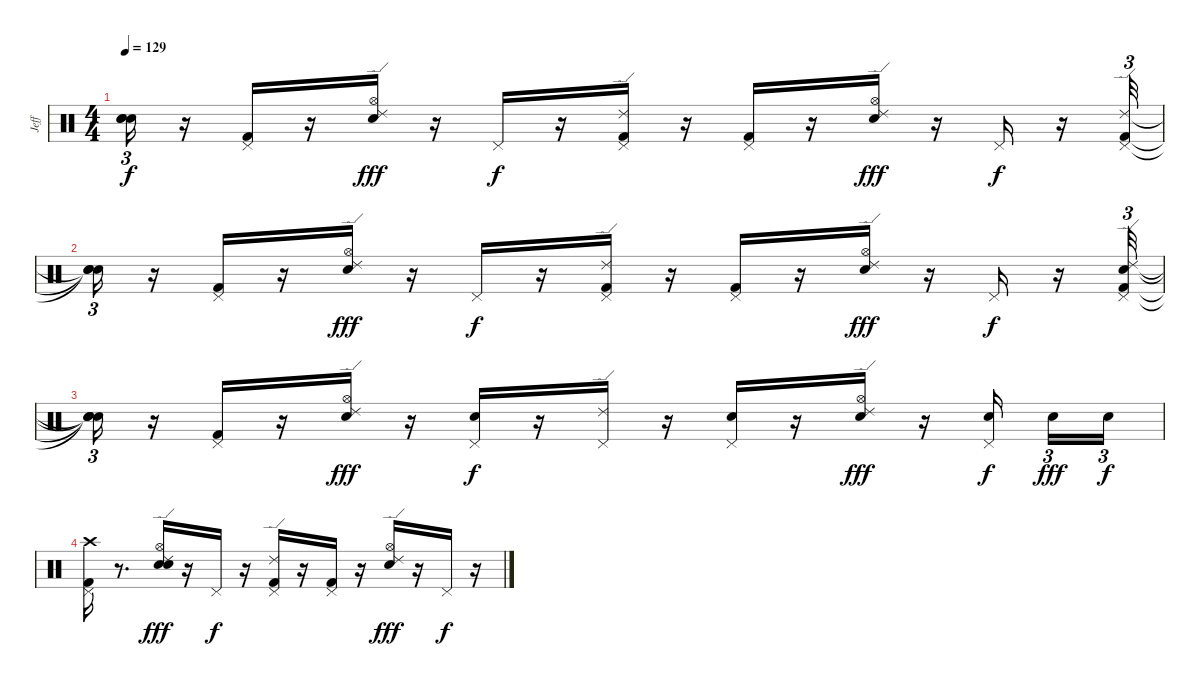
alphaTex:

\track ("Jeff" "Jeff") {instrument percussion}
\staff {score}
\articulation defaults
\ts (4 4)
\tempo 129
\clef neutral
\ks c
("Snare (hit)"{t} "Snare (hit)"{t} "Snare (hit)"{t}).16{tu (3 2) dy f} r.16 ("Kick (hit) 2" "Pedal Hi-Hat (hit)").16 r.16 ("Electric Snare (hit)" "Hi-Hat (open)" "Ride (edge) 2").16{dy fff} r.16 "Pedal Hi-Hat (hit)".16{dy f} r.16 ("Kick (hit) 2" "Pedal Hi-Hat (hit)" "Ride (edge) 2").16 r.16 ("Kick (hit) 2" "Pedal Hi-Hat (hit)").16 r.16 ("Electric Snare (hit)" "Hi-Hat (open)" "Ride (edge) 2").16{dy fff} r.16 "Pedal Hi-Hat (hit)".16{dy f} r.16 ("Kick (hit) 2" "Pedal Hi-Hat (hit)" "Ride (edge) 2").32{tu (3 2)} |
("Snare (hit)"{t} "Snare (hit)"{t} "Snare (hit)"{t}).16{tu (3 2)} r.16 ("Kick (hit) 2" "Pedal Hi-Hat (hit)").16 r.16 ("Electric Snare (hit)" "Hi-Hat (open)" "Ride (edge) 2").16{dy fff} r.16 "Pedal Hi-Hat (hit)".16{dy f} r.16 ("Kick (hit) 2" "Pedal Hi-Hat (hit)" "Ride (edge) 2").16 r.16 ("Kick (hit) 2" "Pedal Hi-Hat (hit)").16 r.16 ("Electric Snare (hit)" "Hi-Hat (open)" "Ride (edge) 2").16{dy fff} r.16 "Pedal Hi-Hat (hit)".16{dy f} r.16 ("Kick (hit) 2" "Electric Snare (hit)" "Pedal Hi-Hat (hit)" "Ride (edge) 2").32{tu (3 2)} |
("Snare (hit)"{t} "Snare (hit)"{t} "Snare (hit)"{t} "Snare (hit)"{t}).16{tu (3 2)} r.16 ("Kick (hit) 2" "Pedal Hi-Hat (hit)").16 r.16 ("Electric Snare (hit)" "Hi-Hat (open)" "Ride (edge) 2").16{dy fff} r.16 ("Electric Snare (hit)" "Pedal Hi-Hat (hit)").16{dy f} r.16 ("Pedal Hi-Hat (hit)" "Ride (edge) 2").16 r.16 ("Electric Snare (hit)" "Pedal Hi-Hat (hit)").16 r.16 ("Electric Snare (hit)" "Hi-Hat (open)" "Ride (edge) 2").16{dy fff} r.16 ("Electric Snare (hit)" "Pedal Hi-Hat (hit)").16{dy f beam splitsecondary} "Electric Snare (hit)".16{tu (3 2) dy fff} "Electric Snare (hit)".16{tu (3 2) dy f} |
("Kick (hit) 2" "Pedal Hi-Hat (hit)" "Crash high (hit)").16 r.8{d} ("Snare (hit) 2" "Electric Snare (hit)" "Hi-Hat (open)" "Ride (edge) 2").16{dy fff} r.16 "Pedal Hi-Hat (hit)".16{dy f} r.16 ("Kick (hit) 2" "Pedal Hi-Hat (hit)" "Ride (edge) 2").16 r.16 ("Kick (hit) 2" "Pedal Hi-Hat (hit)").16 r.16 ("Electric Snare (hit)" "Hi-Hat (open)" "Ride (edge) 2").16{dy fff} r.16 "Pedal Hi-Hat (hit)".16{dy f} r.16
